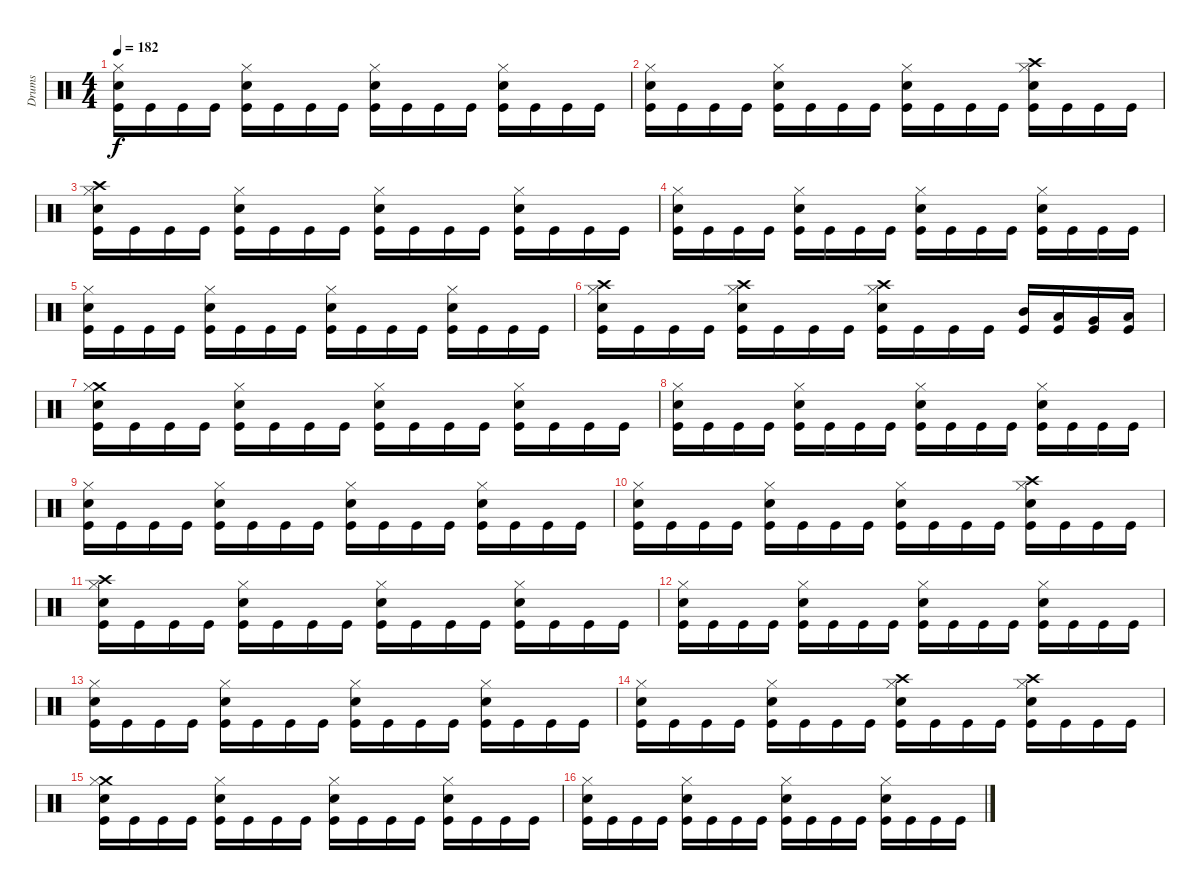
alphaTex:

\track ("Drums" "Drums") {instrument percussion}
\staff {score}
\articulation defaults
\ts (4 4)
\tempo 182
\clef neutral
\ks c
("Hi-Hat (closed)" "Snare (hit) 2" "Kick (hit)").16{dy f} "Kick (hit)".16 "Kick (hit)".16 "Kick (hit)".16 ("Hi-Hat (closed)" "Snare (hit) 2" "Kick (hit)").16 "Kick (hit)".16 "Kick (hit)".16 "Kick (hit)".16 ("Hi-Hat (closed)" "Snare (hit) 2" "Kick (hit)").16 "Kick (hit)".16 "Kick (hit)".16 "Kick (hit)".16 ("Hi-Hat (closed)" "Snare (hit) 2" "Kick (hit)").16 "Kick (hit)".16 "Kick (hit)".16 "Kick (hit)".16 |
("Hi-Hat (closed)" "Snare (hit) 2" "Kick (hit)").16 "Kick (hit)".16 "Kick (hit)".16 "Kick (hit)".16 ("Hi-Hat (closed)" "Snare (hit) 2" "Kick (hit)").16 "Kick (hit)".16 "Kick (hit)".16 "Kick (hit)".16 ("Hi-Hat (closed)" "Snare (hit) 2" "Kick (hit)").16 "Kick (hit)".16 "Kick (hit)".16 "Kick (hit)".16 ("Crash high (hit)" "Hi-Hat (closed)" "Snare (hit) 2" "Kick (hit)").16 "Kick (hit)".16 "Kick (hit)".16 "Kick (hit)".16 |
("Crash high (hit)" "Hi-Hat (closed)" "Snare (hit) 2" "Kick (hit)").16 "Kick (hit)".16 "Kick (hit)".16 "Kick (hit)".16 ("Hi-Hat (closed)" "Snare (hit) 2" "Kick (hit)").16 "Kick (hit)".16 "Kick (hit)".16 "Kick (hit)".16 ("Hi-Hat (closed)" "Snare (hit) 2" "Kick (hit)").16 "Kick (hit)".16 "Kick (hit)".16 "Kick (hit)".16 ("Hi-Hat (closed)" "Snare (hit) 2" "Kick (hit)").16 "Kick (hit)".16 "Kick (hit)".16 "Kick (hit)".16 |
("Hi-Hat (closed)" "Snare (hit) 2" "Kick (hit)").16 "Kick (hit)".16 "Kick (hit)".16 "Kick (hit)".16 ("Hi-Hat (closed)" "Snare (hit) 2" "Kick (hit)").16 "Kick (hit)".16 "Kick (hit)".16 "Kick (hit)".16 ("Hi-Hat (closed)" "Snare (hit) 2" "Kick (hit)").16 "Kick (hit)".16 "Kick (hit)".16 "Kick (hit)".16 ("Hi-Hat (closed)" "Snare (hit) 2" "Kick (hit)").16 "Kick (hit)".16 "Kick (hit)".16 "Kick (hit)".16 |
("Hi-Hat (closed)" "Snare (hit) 2" "Kick (hit)").16 "Kick (hit)".16 "Kick (hit)".16 "Kick (hit)".16 ("Hi-Hat (closed)" "Snare (hit) 2" "Kick (hit)").16 "Kick (hit)".16 "Kick (hit)".16 "Kick (hit)".16 ("Hi-Hat (closed)" "Snare (hit) 2" "Kick (hit)").16 "Kick (hit)".16 "Kick (hit)".16 "Kick (hit)".16 ("Hi-Hat (closed)" "Snare (hit) 2" "Kick (hit)").16 "Kick (hit)".16 "Kick (hit)".16 "Kick (hit)".16 |
("Crash high (hit)" "Hi-Hat (closed)" "Snare (hit) 2" "Kick (hit)").16 "Kick (hit)".16 "Kick (hit)".16 "Kick (hit)".16 ("Crash high (hit)" "Hi-Hat (closed)" "Snare (hit) 2" "Kick (hit)").16 "Kick (hit)".16 "Kick (hit)".16 "Kick (hit)".16 ("Crash high (hit)" "Hi-Hat (closed)" "Snare (hit) 2" "Kick (hit)").16 "Kick (hit)".16 "Kick (hit)".16 "Kick (hit)".16 ("Mid Tom (hit)" "Kick (hit)").16 ("Low Tom (hit)" "Kick (hit)").16 ("Very Low Tom (hit)" "Kick (hit)").16 ("Low Floor Tom (hit)" "Kick (hit)").16 |
("Crash medium (hit)" "Hi-Hat (closed)" "Snare (hit) 2" "Kick (hit)").16 "Kick (hit)".16 "Kick (hit)".16 "Kick (hit)".16 ("Hi-Hat (closed)" "Snare (hit) 2" "Kick (hit)").16 "Kick (hit)".16 "Kick (hit)".16 "Kick (hit)".16 ("Hi-Hat (closed)" "Snare (hit) 2" "Kick (hit)").16 "Kick (hit)".16 "Kick (hit)".16 "Kick (hit)".16 ("Hi-Hat (closed)" "Snare (hit) 2" "Kick (hit)").16 "Kick (hit)".16 "Kick (hit)".16 "Kick (hit)".16 |
("Hi-Hat (closed)" "Snare (hit) 2" "Kick (hit)").16 "Kick (hit)".16 "Kick (hit)".16 "Kick (hit)".16 ("Hi-Hat (closed)" "Snare (hit) 2" "Kick (hit)").16 "Kick (hit)".16 "Kick (hit)".16 "Kick (hit)".16 ("Hi-Hat (closed)" "Snare (hit) 2" "Kick (hit)").16 "Kick (hit)".16 "Kick (hit)".16 "Kick (hit)".16 ("Hi-Hat (closed)" "Snare (hit) 2" "Kick (hit)").16 "Kick (hit)".16 "Kick (hit)".16 "Kick (hit)".16 |
("Hi-Hat (closed)" "Snare (hit) 2" "Kick (hit)").16 "Kick (hit)".16 "Kick (hit)".16 "Kick (hit)".16 ("Hi-Hat (closed)" "Snare (hit) 2" "Kick (hit)").16 "Kick (hit)".16 "Kick (hit)".16 "Kick (hit)".16 ("Hi-Hat (closed)" "Snare (hit) 2" "Kick (hit)").16 "Kick (hit)".16 "Kick (hit)".16 "Kick (hit)".16 ("Hi-Hat (closed)" "Snare (hit) 2" "Kick (hit)").16 "Kick (hit)".16 "Kick (hit)".16 "Kick (hit)".16 |
("Hi-Hat (closed)" "Snare (hit) 2" "Kick (hit)").16 "Kick (hit)".16 "Kick (hit)".16 "Kick (hit)".16 ("Hi-Hat (closed)" "Snare (hit) 2" "Kick (hit)").16 "Kick (hit)".16 "Kick (hit)".16 "Kick (hit)".16 ("Hi-Hat (closed)" "Snare (hit) 2" "Kick (hit)").16 "Kick (hit)".16 "Kick (hit)".16 "Kick (hit)".16 ("Crash high (hit)" "Hi-Hat (closed)" "Snare (hit) 2" "Kick (hit)").16 "Kick (hit)".16 "Kick (hit)".16 "Kick (hit)".16 |
("Crash high (hit)" "Hi-Hat (closed)" "Snare (hit) 2" "Kick (hit)").16 "Kick (hit)".16 "Kick (hit)".16 "Kick (hit)".16 ("Hi-Hat (closed)" "Snare (hit) 2" "Kick (hit)").16 "Kick (hit)".16 "Kick (hit)".16 "Kick (hit)".16 ("Hi-Hat (closed)" "Snare (hit) 2" "Kick (hit)").16 "Kick (hit)".16 "Kick (hit)".16 "Kick (hit)".16 ("Hi-Hat (closed)" "Snare (hit) 2" "Kick (hit)").16 "Kick (hit)".16 "Kick (hit)".16 "Kick (hit)".16 |
("Hi-Hat (closed)" "Snare (hit) 2" "Kick (hit)").16 "Kick (hit)".16 "Kick (hit)".16 "Kick (hit)".16 ("Hi-Hat (closed)" "Snare (hit) 2" "Kick (hit)").16 "Kick (hit)".16 "Kick (hit)".16 "Kick (hit)".16 ("Hi-Hat (closed)" "Snare (hit) 2" "Kick (hit)").16 "Kick (hit)".16 "Kick (hit)".16 "Kick (hit)".16 ("Hi-Hat (closed)" "Snare (hit) 2" "Kick (hit)").16 "Kick (hit)".16 "Kick (hit)".16 "Kick (hit)".16 |
("Hi-Hat (closed)" "Snare (hit) 2" "Kick (hit)").16 "Kick (hit)".16 "Kick (hit)".16 "Kick (hit)".16 ("Hi-Hat (closed)" "Snare (hit) 2" "Kick (hit)").16 "Kick (hit)".16 "Kick (hit)".16 "Kick (hit)".16 ("Hi-Hat (closed)" "Snare (hit) 2" "Kick (hit)").16 "Kick (hit)".16 "Kick (hit)".16 "Kick (hit)".16 ("Hi-Hat (closed)" "Snare (hit) 2" "Kick (hit)").16 "Kick (hit)".16 "Kick (hit)".16 "Kick (hit)".16 |
("Hi-Hat (closed)" "Snare (hit) 2" "Kick (hit)").16 "Kick (hit)".16 "Kick (hit)".16 "Kick (hit)".16 ("Hi-Hat (closed)" "Snare (hit) 2" "Kick (hit)").16 "Kick (hit)".16 "Kick (hit)".16 "Kick (hit)".16 ("Crash high (hit)" "Hi-Hat (closed)" "Snare (hit) 2" "Kick (hit)").16 "Kick (hit)".16 "Kick (hit)".16 "Kick (hit)".16 ("Crash high (hit)" "Hi-Hat (closed)" "Snare (hit) 2" "Kick (hit)").16 "Kick (hit)".16 "Kick (hit)".16 "Kick (hit)".16 |
("Crash medium (hit)" "Hi-Hat (closed)" "Snare (hit) 2" "Kick (hit)").16 "Kick (hit)".16 "Kick (hit)".16 "Kick (hit)".16 ("Hi-Hat (closed)" "Snare (hit) 2" "Kick (hit)").16 "Kick (hit)".16 "Kick (hit)".16 "Kick (hit)".16 ("Hi-Hat (closed)" "Snare (hit) 2" "Kick (hit)").16 "Kick (hit)".16 "Kick (hit)".16 "Kick (hit)".16 ("Hi-Hat (closed)" "Snare (hit) 2" "Kick (hit)").16 "Kick (hit)".16 "Kick (hit)".16 "Kick (hit)".16 |
("Hi-Hat (closed)" "Snare (hit) 2" "Kick (hit)").16 "Kick (hit)".16 "Kick (hit)".16 "Kick (hit)".16 ("Hi-Hat (closed)" "Snare (hit) 2" "Kick (hit)").16 "Kick (hit)".16 "Kick (hit)".16 "Kick (hit)".16 ("Hi-Hat (closed)" "Snare (hit) 2" "Kick (hit)").16 "Kick (hit)".16 "Kick (hit)".16 "Kick (hit)".16 ("Hi-Hat (closed)" "Snare (hit) 2" "Kick (hit)").16 "Kick (hit)".16 "Kick (hit)".16 "Kick (hit)".16
